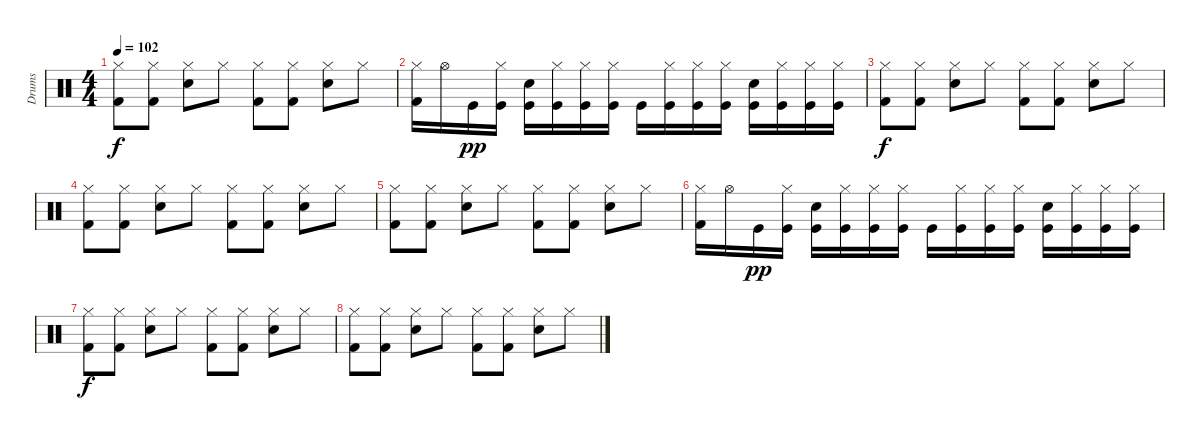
\track ("Drums" "Drums") {instrument percussion}
\staff {score}
\articulation defaults
\ts (4 4)
\tempo 102
\clef neutral
\ks c
("Kick (hit) 2" "Hi-Hat (closed)").8{dy f} ("Kick (hit) 2" "Hi-Hat (closed)").8 ("Snare (hit) 2" "Hi-Hat (closed)").8 "Hi-Hat (closed)".8 ("Kick (hit) 2" "Hi-Hat (closed)").8 ("Kick (hit) 2" "Hi-Hat (closed)").8 ("Snare (hit) 2" "Hi-Hat (closed)").8 "Hi-Hat (closed)".8 |
("Kick (hit) 2" "Hi-Hat (closed)").16 "Hi-Hat (open)".16 "Kick (hit)".16{dy pp} ("Kick (hit)" "Hi-Hat (closed)").16 ("Kick (hit)" "Snare (hit) 2").16 ("Kick (hit)" "Hi-Hat (closed)").16 ("Kick (hit)" "Hi-Hat (closed)").16 ("Kick (hit)" "Hi-Hat (closed)").16 "Kick (hit)".16 ("Kick (hit)" "Hi-Hat (closed)").16 ("Kick (hit)" "Hi-Hat (closed)").16 ("Kick (hit)" "Hi-Hat (closed)").16 ("Kick (hit)" "Snare (hit) 2").16 ("Kick (hit)" "Hi-Hat (closed)").16 ("Kick (hit)" "Hi-Hat (closed)").16 ("Kick (hit)" "Hi-Hat (closed)").16 |
("Kick (hit) 2" "Hi-Hat (closed)").8{dy f volume 8} ("Kick (hit) 2" "Hi-Hat (closed)").8 ("Snare (hit) 2" "Hi-Hat (closed)").8 "Hi-Hat (closed)".8 ("Kick (hit) 2" "Hi-Hat (closed)").8 ("Kick (hit) 2" "Hi-Hat (closed)").8 ("Snare (hit) 2" "Hi-Hat (closed)").8 "Hi-Hat (closed)".8 |
("Kick (hit) 2" "Hi-Hat (closed)").8 ("Kick (hit) 2" "Hi-Hat (closed)").8 ("Snare (hit) 2" "Hi-Hat (closed)").8 "Hi-Hat (closed)".8 ("Kick (hit) 2" "Hi-Hat (closed)").8 ("Kick (hit) 2" "Hi-Hat (closed)").8 ("Snare (hit) 2" "Hi-Hat (closed)").8 "Hi-Hat (closed)".8 |
("Kick (hit) 2" "Hi-Hat (closed)").8{volume 5} ("Kick (hit) 2" "Hi-Hat (closed)").8 ("Snare (hit) 2" "Hi-Hat (closed)").8 "Hi-Hat (closed)".8 ("Kick (hit) 2" "Hi-Hat (closed)").8 ("Kick (hit) 2" "Hi-Hat (closed)").8 ("Snare (hit) 2" "Hi-Hat (closed)").8 "Hi-Hat (closed)".8 |
("Kick (hit) 2" "Hi-Hat (closed)").16 "Hi-Hat (open)".16 "Kick (hit)".16{dy pp} ("Kick (hit)" "Hi-Hat (closed)").16 ("Kick (hit)" "Snare (hit) 2").16 ("Kick (hit)" "Hi-Hat (closed)").16 ("Kick (hit)" "Hi-Hat (closed)").16 ("Kick (hit)" "Hi-Hat (closed)").16 "Kick (hit)".16 ("Kick (hit)" "Hi-Hat (closed)").16 ("Kick (hit)" "Hi-Hat (closed)").16 ("Kick (hit)" "Hi-Hat (closed)").16 ("Kick (hit)" "Snare (hit) 2").16 ("Kick (hit)" "Hi-Hat (closed)").16 ("Kick (hit)" "Hi-Hat (closed)").16 ("Kick (hit)" "Hi-Hat (closed)").16 |
("Kick (hit) 2" "Hi-Hat (closed)").8{dy f volume 0} ("Kick (hit) 2" "Hi-Hat (closed)").8 ("Snare (hit) 2" "Hi-Hat (closed)").8 "Hi-Hat (closed)".8 ("Kick (hit) 2" "Hi-Hat (closed)").8 ("Kick (hit) 2" "Hi-Hat (closed)").8 ("Snare (hit) 2" "Hi-Hat (closed)").8 "Hi-Hat (closed)".8 |
("Kick (hit) 2" "Hi-Hat (closed)").8 ("Kick (hit) 2" "Hi-Hat (closed)").8 ("Snare (hit) 2" "Hi-Hat (closed)").8 "Hi-Hat (closed)".8 ("Kick (hit) 2" "Hi-Hat (closed)").8 ("Kick (hit) 2" "Hi-Hat (closed)").8 ("Snare (hit) 2" "Hi-Hat (closed)").8 "Hi-Hat (closed)".8
